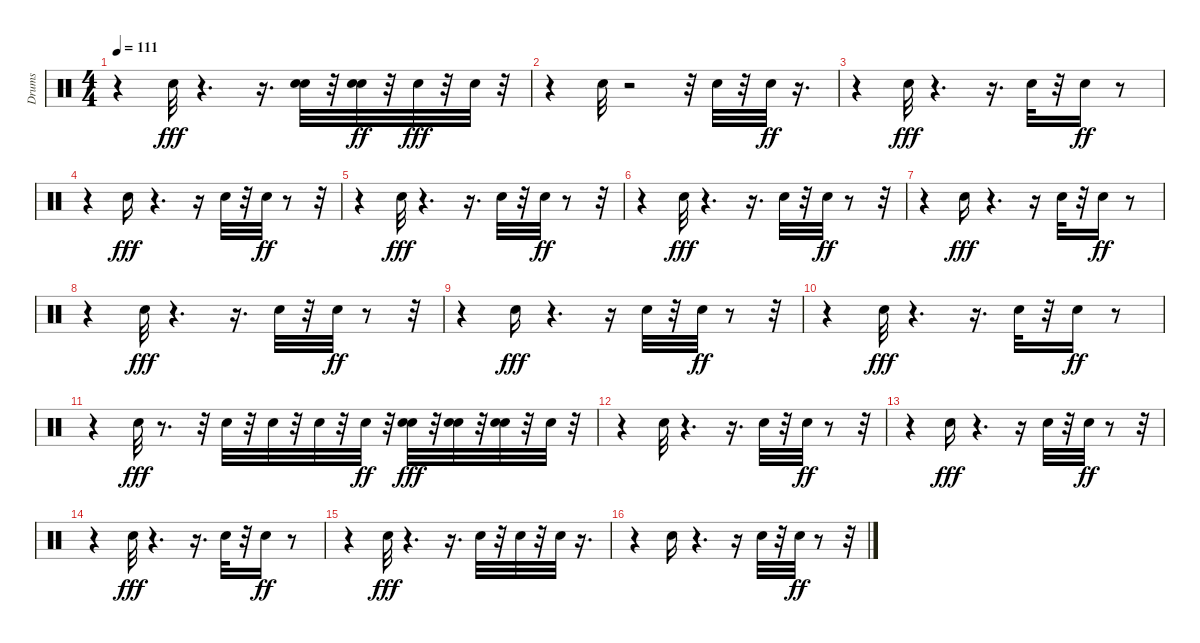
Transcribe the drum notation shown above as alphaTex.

\track ("Drums" "Drums") {instrument percussion}
\staff {score}
\articulation defaults
\ts (4 4)
\tempo 111
\clef neutral
\ks c
r.4{dy ff} "Electric Snare (hit)".32{dy fff} r.4{d} r.16{d} ("Electric Snare (hit)" "Electric Snare (hit)").32 r.32 ("Electric Snare (hit)" "Electric Snare (hit)").32{dy ff} r.32 "Electric Snare (hit)".32{dy fff} r.32 "Electric Snare (hit)".32 r.32 |
r.4 "Electric Snare (hit)".32 r.2 r.32 "Electric Snare (hit)".32 r.32 "Electric Snare (hit)".32{dy ff} r.16{d} |
r.4 "Electric Snare (hit)".32{dy fff} r.4{d} r.16{d} "Electric Snare (hit)".32 r.32 "Electric Snare (hit)".16{dy ff} r.8 |
r.4 "Electric Snare (hit)".16{dy fff} r.4{d} r.16 "Electric Snare (hit)".32 r.32 "Electric Snare (hit)".32{dy ff} r.8 r.32 |
r.4 "Electric Snare (hit)".32{dy fff} r.4{d} r.16{d} "Electric Snare (hit)".32 r.32 "Electric Snare (hit)".32{dy ff} r.8 r.32 |
r.4 "Electric Snare (hit)".32{dy fff} r.4{d} r.16{d} "Electric Snare (hit)".32 r.32 "Electric Snare (hit)".32{dy ff} r.8 r.32 |
r.4 "Electric Snare (hit)".16{dy fff} r.4{d} r.16 "Electric Snare (hit)".32 r.32 "Electric Snare (hit)".16{dy ff} r.8 |
r.4 "Electric Snare (hit)".32{dy fff} r.4{d} r.16{d} "Electric Snare (hit)".32 r.32 "Electric Snare (hit)".32{dy ff} r.8 r.32 |
r.4 "Electric Snare (hit)".16{dy fff} r.4{d} r.16 "Electric Snare (hit)".32 r.32 "Electric Snare (hit)".32{dy ff} r.8 r.32 |
r.4 "Electric Snare (hit)".32{dy fff} r.4{d} r.16{d} "Electric Snare (hit)".32 r.32 "Electric Snare (hit)".16{dy ff} r.8 |
r.4 "Electric Snare (hit)".32{dy fff} r.8{d} r.32 "Electric Snare (hit)".32 r.32 "Electric Snare (hit)".32 r.32 "Electric Snare (hit)".32 r.32 "Electric Snare (hit)".32{dy ff} r.32 ("Electric Snare (hit)" "Electric Snare (hit)").32{dy fff} r.32 ("Electric Snare (hit)" "Electric Snare (hit)").32 r.32 ("Electric Snare (hit)" "Electric Snare (hit)").32 r.32 "Electric Snare (hit)".32 r.32 |
r.4 "Electric Snare (hit)".32 r.4{d} r.16{d} "Electric Snare (hit)".32 r.32 "Electric Snare (hit)".32{dy ff} r.8 r.32 |
r.4 "Electric Snare (hit)".16{dy fff} r.4{d} r.16 "Electric Snare (hit)".32 r.32 "Electric Snare (hit)".32{dy ff} r.8 r.32 |
r.4 "Electric Snare (hit)".32{dy fff} r.4{d} r.16{d} "Electric Snare (hit)".32 r.32 "Electric Snare (hit)".16{dy ff} r.8 |
r.4 "Electric Snare (hit)".32{dy fff} r.4{d} r.16{d} "Electric Snare (hit)".32 r.32 "Electric Snare (hit)".32 r.32 "Electric Snare (hit)".32 r.16{d} |
r.4 "Electric Snare (hit)".16 r.4{d} r.16 "Electric Snare (hit)".32 r.32 "Electric Snare (hit)".32{dy ff} r.8 r.32
